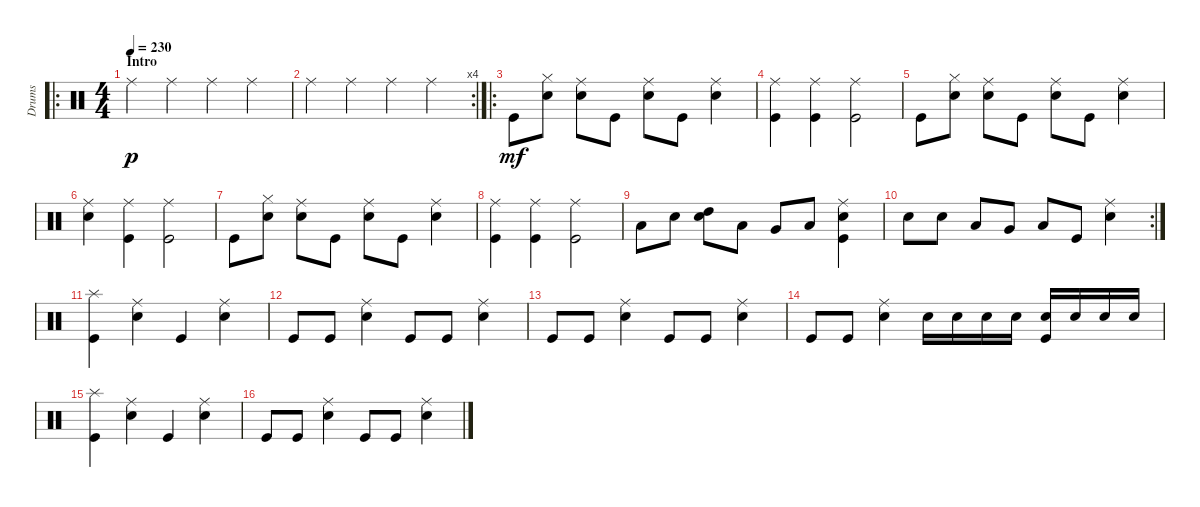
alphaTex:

\track ("Drums" "Drums") {instrument percussion}
\staff {score}
\articulation defaults
\ro
\ts (4 4)
\section ("" "Intro")
\tempo 230
\clef neutral
\ks c "Ride (middle)".4{dy p} "Ride (middle)".4 "Ride (middle)".4 "Ride (middle)".4
|
\rc 4 "Ride (middle)".4 "Ride (middle)".4 "Ride (middle)".4 "Ride (middle)".4
|
\ro "Kick (hit)".8{dy mf}
("Snare (hit) 2" "Hi-Hat (closed)").8 ("Snare (hit) 2" "Ride (middle)").8 "Kick (hit)".8 ("Snare (hit) 2" "Ride (middle)").8 "Kick (hit)".8 ("Snare (hit) 2" "Ride (middle)").4 |
("Kick (hit)" "Ride (middle)").4 ("Kick (hit)" "Ride (middle)").4 ("Kick (hit)" "Ride (middle)").2 |
"Kick (hit)".8 ("Snare (hit) 2" "Hi-Hat (closed)").8 ("Snare (hit) 2" "Ride (middle)").8 "Kick (hit)".8 ("Snare (hit) 2" "Ride (middle)").8 "Kick (hit)".8 ("Snare (hit) 2" "Ride (middle)").4 |
("Ride (middle)" "Snare (hit) 2").4 ("Kick (hit)" "Ride (middle)").4 ("Kick (hit)" "Ride (middle)").2 |
"Kick (hit)".8 ("Snare (hit) 2" "Hi-Hat (closed)").8 ("Snare (hit) 2" "Ride (middle)").8 "Kick (hit)".8 ("Snare (hit) 2" "Ride (middle)").8 "Kick (hit)".8 ("Snare (hit) 2" "Ride (middle)").4 |
("Kick (hit)" "Ride (middle)").4 ("Kick (hit)" "Ride (middle)").4 ("Kick (hit)" "Ride (middle)").2 |
"Low Tom (hit)".8 "Snare (hit) 2".8 ("Snare (hit) 2" "High Tom (hit)").8 "Low Tom (hit)".8 "Very Low Tom (hit)".8 "Low Floor Tom (hit)".8 ("Kick (hit)" "Ride (middle)" "Snare (hit) 2").4 |
\rc 2 "Snare (hit) 2".8 "Snare (hit) 2".8 "Low Tom (hit)".8 "Very Low Tom (hit)".8 "Low Floor Tom (hit)".8 "Kick (hit)".8
("Snare (hit) 2" "Ride (middle)").4 |
("Kick (hit)" "Splash (hit)").4 ("Snare (hit) 2" "Ride (middle)").4 "Kick (hit)".4 ("Snare (hit) 2" "Ride (middle)").4 |
"Kick (hit)".8 "Kick (hit)".8 ("Snare (hit) 2" "Ride (middle)").4 "Kick (hit)".8 "Kick (hit)".8 ("Snare (hit) 2" "Ride (middle)").4 |
"Kick (hit)".8 "Kick (hit)".8 ("Snare (hit) 2" "Ride (middle)").4 "Kick (hit)".8 "Kick (hit)".8 ("Snare (hit) 2" "Ride (middle)").4 |
"Kick (hit)".8 "Kick (hit)".8 ("Snare (hit) 2" "Ride (middle)").4 "Snare (hit) 2".16 "Snare (hit) 2".16 "Snare (hit) 2".16 "Snare (hit) 2".16 ("Snare (hit) 2" "Kick (hit)").16 "Snare (hit) 2".16 "Snare (hit) 2".16 "Snare (hit) 2".16 |
("Kick (hit)" "Splash (hit)").4 ("Snare (hit) 2" "Ride (middle)").4 "Kick (hit)".4 ("Snare (hit) 2" "Ride (middle)").4 |
"Kick (hit)".8 "Kick (hit)".8 ("Snare (hit) 2" "Ride (middle)").4 "Kick (hit)".8 "Kick (hit)".8 ("Snare (hit) 2" "Ride (middle)").4
